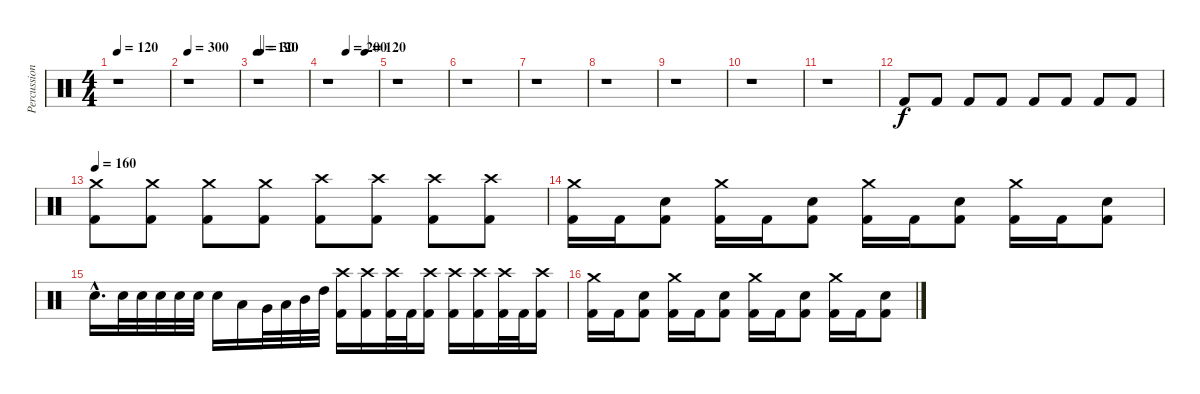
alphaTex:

\track ("Percussion" "Percussion") {instrument percussion}
\staff {score}
\articulation defaults
\ts (4 4)
\tempo 120
\clef neutral
\ks c
r.1{dy f} |
\tempo 300
r.1 |
\tempo 120
\tempo (30 0.0625)
r.1 |
\tempo (200 0.375)
\tempo (120 0.75)
r.1 |
r.1 |
r.1 |
r.1 |
r.1 |
r.1 |
r.1 |
r.1{volume 0} |
"Kick (hit) 2".8{volume 0} "Kick (hit) 2".8{volume 16} "Kick (hit) 2".8 "Kick (hit) 2".8 "Kick (hit) 2".8 "Kick (hit) 2".8 "Kick (hit) 2".8 "Kick (hit) 2".8 |
\tempo 160
("Crash medium (hit)" "Kick (hit) 2").8 ("Crash medium (hit)" "Kick (hit) 2").8 ("Crash medium (hit)" "Kick (hit) 2").8 ("Crash medium (hit)" "Kick (hit) 2").8 ("Crash high (hit)" "Kick (hit) 2").8 ("Crash high (hit)" "Kick (hit) 2").8 ("Crash high (hit)" "Kick (hit) 2").8 ("Crash high (hit)" "Kick (hit) 2").8 |
("Crash medium (hit)" "Kick (hit) 2").16 "Kick (hit) 2".16 ("Snare (hit) 2" "Kick (hit) 2").8 ("Crash medium (hit)" "Kick (hit) 2").16 "Kick (hit) 2".16 ("Snare (hit) 2" "Kick (hit) 2").8 ("Crash medium (hit)" "Kick (hit) 2").16 "Kick (hit) 2".16 ("Snare (hit) 2" "Kick (hit) 2").8 ("Crash medium (hit)" "Kick (hit) 2").16 "Kick (hit) 2".16 ("Snare (hit) 2" "Kick (hit) 2").8 |
"Snare (hit) 2"{hac}.16{d} "Snare (hit) 2".32 "Snare (hit) 2".32 "Snare (hit) 2".32 "Snare (hit) 2".32 "Snare (hit) 2".32 "Snare (hit) 2".16 "Low Floor Tom (hit)".16 "Very Low Tom (hit)".32 "Low Tom (hit)".32 "Mid Tom (hit)".32 "High Tom (hit)".32 ("Crash high (hit)" "Kick (hit) 2").16 ("Crash high (hit)" "Kick (hit) 2").16 ("Crash high (hit)" "Kick (hit) 2").32 "Kick (hit) 2".32 ("Crash high (hit)" "Kick (hit) 2").16 ("Crash high (hit)" "Kick (hit) 2").16 ("Crash high (hit)" "Kick (hit) 2").16 ("Crash high (hit)" "Kick (hit) 2").32 "Kick (hit) 2".32 ("Crash high (hit)" "Kick (hit) 2").16 |
("Crash medium (hit)" "Kick (hit) 2").16 "Kick (hit) 2".16 ("Snare (hit) 2" "Kick (hit) 2").8 ("Crash medium (hit)" "Kick (hit) 2").16 "Kick (hit) 2".16 ("Snare (hit) 2" "Kick (hit) 2").8 ("Crash medium (hit)" "Kick (hit) 2").16 "Kick (hit) 2".16 ("Snare (hit) 2" "Kick (hit) 2").8 ("Crash medium (hit)" "Kick (hit) 2").16 "Kick (hit) 2".16 ("Snare (hit) 2" "Kick (hit) 2").8
